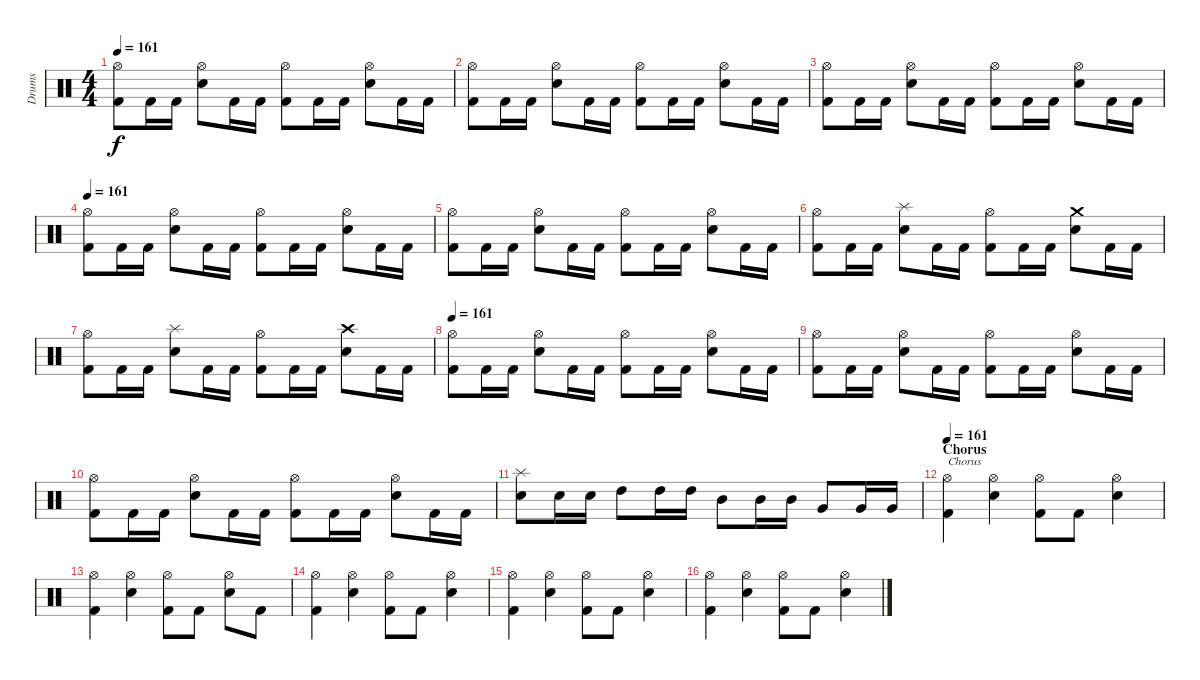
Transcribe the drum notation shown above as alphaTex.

\track ("Drums" "Drums") {instrument percussion}
\staff {score}
\articulation defaults
\ts (4 4)
\tempo 161
\clef neutral
\ks c
("Kick (hit) 2" "Hi-Hat (open)").8{dy f} "Kick (hit) 2".16 "Kick (hit) 2".16 ("Electric Snare (hit)" "Hi-Hat (open)").8 "Kick (hit) 2".16 "Kick (hit) 2".16 ("Kick (hit) 2" "Hi-Hat (open)").8 "Kick (hit) 2".16 "Kick (hit) 2".16 ("Electric Snare (hit)" "Hi-Hat (open)").8 "Kick (hit) 2".16 "Kick (hit) 2".16 |
("Kick (hit) 2" "Hi-Hat (open)").8 "Kick (hit) 2".16 "Kick (hit) 2".16 ("Electric Snare (hit)" "Hi-Hat (open)").8 "Kick (hit) 2".16 "Kick (hit) 2".16 ("Kick (hit) 2" "Hi-Hat (open)").8 "Kick (hit) 2".16 "Kick (hit) 2".16 ("Electric Snare (hit)" "Hi-Hat (open)").8 "Kick (hit) 2".16 "Kick (hit) 2".16 |
("Kick (hit) 2" "Hi-Hat (open)").8 "Kick (hit) 2".16 "Kick (hit) 2".16 ("Electric Snare (hit)" "Hi-Hat (open)").8 "Kick (hit) 2".16 "Kick (hit) 2".16 ("Kick (hit) 2" "Hi-Hat (open)").8 "Kick (hit) 2".16 "Kick (hit) 2".16 ("Electric Snare (hit)" "Hi-Hat (open)").8 "Kick (hit) 2".16 "Kick (hit) 2".16 |
\tempo 161
("Kick (hit) 2" "Hi-Hat (open)").8 "Kick (hit) 2".16 "Kick (hit) 2".16 ("Electric Snare (hit)" "Hi-Hat (open)").8 "Kick (hit) 2".16 "Kick (hit) 2".16 ("Kick (hit) 2" "Hi-Hat (open)").8 "Kick (hit) 2".16 "Kick (hit) 2".16 ("Electric Snare (hit)" "Hi-Hat (open)").8 "Kick (hit) 2".16 "Kick (hit) 2".16 |
("Kick (hit) 2" "Hi-Hat (open)").8 "Kick (hit) 2".16 "Kick (hit) 2".16 ("Electric Snare (hit)" "Hi-Hat (open)").8 "Kick (hit) 2".16 "Kick (hit) 2".16 ("Kick (hit) 2" "Hi-Hat (open)").8 "Kick (hit) 2".16 "Kick (hit) 2".16 ("Electric Snare (hit)" "Hi-Hat (open)").8 "Kick (hit) 2".16 "Kick (hit) 2".16 |
("Kick (hit) 2" "Hi-Hat (open)").8 "Kick (hit) 2".16 "Kick (hit) 2".16 ("Electric Snare (hit)" "Splash (hit)").8 "Kick (hit) 2".16 "Kick (hit) 2".16 ("Kick (hit) 2" "Hi-Hat (open)").8 "Kick (hit) 2".16 "Kick (hit) 2".16 ("Electric Snare (hit)" "Crash medium (hit)").8 "Kick (hit) 2".16 "Kick (hit) 2".16 |
("Kick (hit) 2" "Hi-Hat (open)").8 "Kick (hit) 2".16 "Kick (hit) 2".16 ("Electric Snare (hit)" "Splash (hit)").8 "Kick (hit) 2".16 "Kick (hit) 2".16 ("Kick (hit) 2" "Hi-Hat (open)").8 "Kick (hit) 2".16 "Kick (hit) 2".16 ("Electric Snare (hit)" "Crash high (hit)").8 "Kick (hit) 2".16 "Kick (hit) 2".16 |
\tempo 161
("Kick (hit) 2" "Hi-Hat (open)").8 "Kick (hit) 2".16 "Kick (hit) 2".16 ("Electric Snare (hit)" "Hi-Hat (open)").8 "Kick (hit) 2".16 "Kick (hit) 2".16 ("Kick (hit) 2" "Hi-Hat (open)").8 "Kick (hit) 2".16 "Kick (hit) 2".16 ("Electric Snare (hit)" "Hi-Hat (open)").8 "Kick (hit) 2".16 "Kick (hit) 2".16 |
("Kick (hit) 2" "Hi-Hat (open)").8 "Kick (hit) 2".16 "Kick (hit) 2".16 ("Electric Snare (hit)" "Hi-Hat (open)").8 "Kick (hit) 2".16 "Kick (hit) 2".16 ("Kick (hit) 2" "Hi-Hat (open)").8 "Kick (hit) 2".16 "Kick (hit) 2".16 ("Electric Snare (hit)" "Hi-Hat (open)").8 "Kick (hit) 2".16 "Kick (hit) 2".16 |
("Kick (hit) 2" "Hi-Hat (open)").8 "Kick (hit) 2".16 "Kick (hit) 2".16 ("Electric Snare (hit)" "Hi-Hat (open)").8 "Kick (hit) 2".16 "Kick (hit) 2".16 ("Kick (hit) 2" "Hi-Hat (open)").8 "Kick (hit) 2".16 "Kick (hit) 2".16 ("Electric Snare (hit)" "Hi-Hat (open)").8 "Kick (hit) 2".16 "Kick (hit) 2".16 |
("Electric Snare (hit)" "Splash (hit)").8 "Electric Snare (hit)".16 "Electric Snare (hit)".16 "High Tom (hit)".8 "High Tom (hit)".16 "High Tom (hit)".16 "Mid Tom (hit)".8 "Mid Tom (hit)".16 "Mid Tom (hit)".16 "Very Low Tom (hit)".8 "Very Low Tom (hit)".16 "Very Low Tom (hit)".16 |
\section ("" "Chorus")
\tempo 161
("Kick (hit) 2" "Hi-Hat (open)").4{txt "Chorus"} ("Electric Snare (hit)" "Hi-Hat (open)").4 ("Kick (hit) 2" "Hi-Hat (open)").8 "Kick (hit) 2".8 ("Electric Snare (hit)" "Hi-Hat (open)").4 |
("Kick (hit) 2" "Hi-Hat (open)").4 ("Electric Snare (hit)" "Hi-Hat (open)").4 ("Kick (hit) 2" "Hi-Hat (open)").8 "Kick (hit) 2".8 ("Electric Snare (hit)" "Hi-Hat (open)").8 "Kick (hit) 2".8 |
("Kick (hit) 2" "Hi-Hat (open)").4 ("Electric Snare (hit)" "Hi-Hat (open)").4 ("Kick (hit) 2" "Hi-Hat (open)").8 "Kick (hit) 2".8 ("Electric Snare (hit)" "Hi-Hat (open)").4 |
("Kick (hit) 2" "Hi-Hat (open)").4 ("Electric Snare (hit)" "Hi-Hat (open)").4 ("Kick (hit) 2" "Hi-Hat (open)").8 "Kick (hit) 2".8 ("Electric Snare (hit)" "Hi-Hat (open)").4 |
("Kick (hit) 2" "Hi-Hat (open)").4 ("Electric Snare (hit)" "Hi-Hat (open)").4 ("Kick (hit) 2" "Hi-Hat (open)").8 "Kick (hit) 2".8 ("Electric Snare (hit)" "Hi-Hat (open)").4
